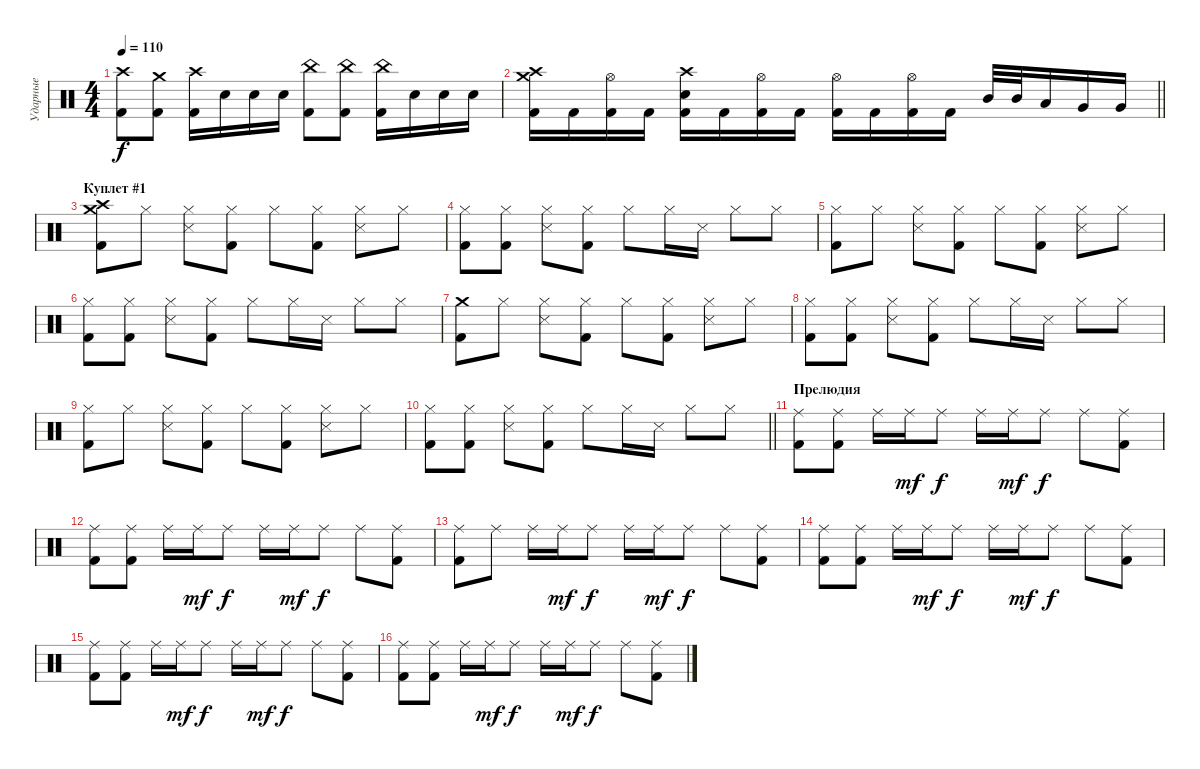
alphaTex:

\track ("Ударные" "Ударные") {instrument percussion}
\staff
\articulation defaults
\ts (4 4)
\tempo 110
\clef neutral
\ks c
("Crash high (hit)" "Kick (hit) 2").8{dy f} ("Crash medium (hit)" "Kick (hit) 2").8 ("Crash high (hit)" "Kick (hit) 2").16 "Electric Snare (hit)".16 "Electric Snare (hit)".16 "Electric Snare (hit)".16 ("China (hit)" "Kick (hit) 2").8 ("China (hit)" "Kick (hit) 2").8 ("China (hit)" "Kick (hit) 2").16 "Electric Snare (hit)".16 "Electric Snare (hit)".16 "Electric Snare (hit)".16 |
\barLineRight lightlight
("Crash high (hit)" "Crash medium (hit)" "Kick (hit) 2").16 "Kick (hit) 2".16 ("Hi-Hat (open)" "Kick (hit) 2").16 "Kick (hit) 2".16 ("Crash high (hit)" "Electric Snare (hit)" "Kick (hit) 2").16 "Kick (hit) 2".16 ("Hi-Hat (open)" "Kick (hit) 2").16 "Kick (hit) 2".16 ("Hi-Hat (open)" "Kick (hit) 2").16 "Kick (hit) 2".16 ("Hi-Hat (open)" "Kick (hit) 2").16 "Kick (hit) 2".16 "Mid Tom (hit)".32 "Mid Tom (hit)".32 "Low Tom (hit)".16 "Very Low Tom (hit)".16 "Very Low Tom (hit)".16 |
\section ("" "Куплет #1")
("Crash high (hit)" "Crash medium (hit)" "Kick (hit) 2").8 "Hi-Hat (closed)".8 ("Hi-Hat (closed)" "Snare (side stick) 3").8 ("Hi-Hat (closed)" "Kick (hit) 2").8 "Hi-Hat (closed)".8 ("Hi-Hat (closed)" "Kick (hit) 2").8 ("Hi-Hat (closed)" "Snare (side stick) 3").8 "Hi-Hat (closed)".8 |
("Hi-Hat (closed)" "Kick (hit) 2").8 ("Hi-Hat (closed)" "Kick (hit) 2").8 ("Hi-Hat (closed)" "Snare (side stick) 3").8 ("Hi-Hat (closed)" "Kick (hit) 2").8 "Hi-Hat (closed)".8 "Hi-Hat (closed)".16 "Snare (side stick) 3".16 "Hi-Hat (closed)".8 "Hi-Hat (closed)".8 |
("Hi-Hat (closed)" "Kick (hit) 2").8 "Hi-Hat (closed)".8 ("Hi-Hat (closed)" "Snare (side stick) 3").8 ("Hi-Hat (closed)" "Kick (hit) 2").8 "Hi-Hat (closed)".8 ("Hi-Hat (closed)" "Kick (hit) 2").8 ("Hi-Hat (closed)" "Snare (side stick) 3").8 "Hi-Hat (closed)".8 |
("Hi-Hat (closed)" "Kick (hit) 2").8 ("Hi-Hat (closed)" "Kick (hit) 2").8 ("Hi-Hat (closed)" "Snare (side stick) 3").8 ("Hi-Hat (closed)" "Kick (hit) 2").8 "Hi-Hat (closed)".8 "Hi-Hat (closed)".16 "Snare (side stick) 3".16 "Hi-Hat (closed)".8 "Hi-Hat (closed)".8 |
("Crash medium (hit)" "Kick (hit) 2").8 "Hi-Hat (closed)".8 ("Hi-Hat (closed)" "Snare (side stick) 3").8 ("Hi-Hat (closed)" "Kick (hit) 2").8 "Hi-Hat (closed)".8 ("Hi-Hat (closed)" "Kick (hit) 2").8 ("Hi-Hat (closed)" "Snare (side stick) 3").8 "Hi-Hat (closed)".8 |
("Hi-Hat (closed)" "Kick (hit) 2").8 ("Hi-Hat (closed)" "Kick (hit) 2").8 ("Hi-Hat (closed)" "Snare (side stick) 3").8 ("Hi-Hat (closed)" "Kick (hit) 2").8 "Hi-Hat (closed)".8 "Hi-Hat (closed)".16 "Snare (side stick) 3".16 "Hi-Hat (closed)".8 "Hi-Hat (closed)".8 |
("Hi-Hat (closed)" "Kick (hit) 2").8 "Hi-Hat (closed)".8 ("Hi-Hat (closed)" "Snare (side stick) 3").8 ("Hi-Hat (closed)" "Kick (hit) 2").8 "Hi-Hat (closed)".8 ("Hi-Hat (closed)" "Kick (hit) 2").8 ("Hi-Hat (closed)" "Snare (side stick) 3").8 "Hi-Hat (closed)".8 |
\barLineRight lightlight
("Hi-Hat (closed)" "Kick (hit) 2").8 ("Hi-Hat (closed)" "Kick (hit) 2").8 ("Hi-Hat (closed)" "Snare (side stick) 3").8 ("Hi-Hat (closed)" "Kick (hit) 2").8 "Hi-Hat (closed)".8 "Hi-Hat (closed)".16 "Snare (side stick) 3".16 "Hi-Hat (closed)".8 "Hi-Hat (closed)".8 |
\section ("" "Прелюдия")
("Ride (middle)" "Kick (hit) 2").8 ("Ride (middle)" "Kick (hit) 2").8 "Ride (middle)".16 "Ride (middle)".16{dy mf} "Ride (middle)".8{dy f} "Ride (middle)".16 "Ride (middle)".16{dy mf} "Ride (middle)".8{dy f} "Ride (middle)".8 ("Ride (middle)" "Kick (hit) 2").8 |
("Ride (middle)" "Kick (hit) 2").8 ("Ride (middle)" "Kick (hit) 2").8 "Ride (middle)".16 "Ride (middle)".16{dy mf} "Ride (middle)".8{dy f} "Ride (middle)".16 "Ride (middle)".16{dy mf} "Ride (middle)".8{dy f} "Ride (middle)".8 ("Ride (middle)" "Kick (hit) 2").8 |
("Ride (middle)" "Kick (hit) 2").8 "Ride (middle)".8 "Ride (middle)".16 "Ride (middle)".16{dy mf} "Ride (middle)".8{dy f} "Ride (middle)".16 "Ride (middle)".16{dy mf} "Ride (middle)".8{dy f} "Ride (middle)".8 ("Ride (middle)" "Kick (hit) 2").8 |
("Ride (middle)" "Kick (hit) 2").8 ("Ride (middle)" "Kick (hit) 2").8 "Ride (middle)".16 "Ride (middle)".16{dy mf} "Ride (middle)".8{dy f} "Ride (middle)".16 "Ride (middle)".16{dy mf} "Ride (middle)".8{dy f} "Ride (middle)".8 ("Ride (middle)" "Kick (hit) 2").8 |
("Ride (middle)" "Kick (hit) 2").8 ("Ride (middle)" "Kick (hit) 2").8 "Ride (middle)".16 "Ride (middle)".16{dy mf} "Ride (middle)".8{dy f} "Ride (middle)".16 "Ride (middle)".16{dy mf} "Ride (middle)".8{dy f} "Ride (middle)".8 ("Ride (middle)" "Kick (hit) 2").8 |
("Ride (middle)" "Kick (hit) 2").8 ("Ride (middle)" "Kick (hit) 2").8 "Ride (middle)".16 "Ride (middle)".16{dy mf} "Ride (middle)".8{dy f} "Ride (middle)".16 "Ride (middle)".16{dy mf} "Ride (middle)".8{dy f} "Ride (middle)".8 ("Ride (middle)" "Kick (hit) 2").8
